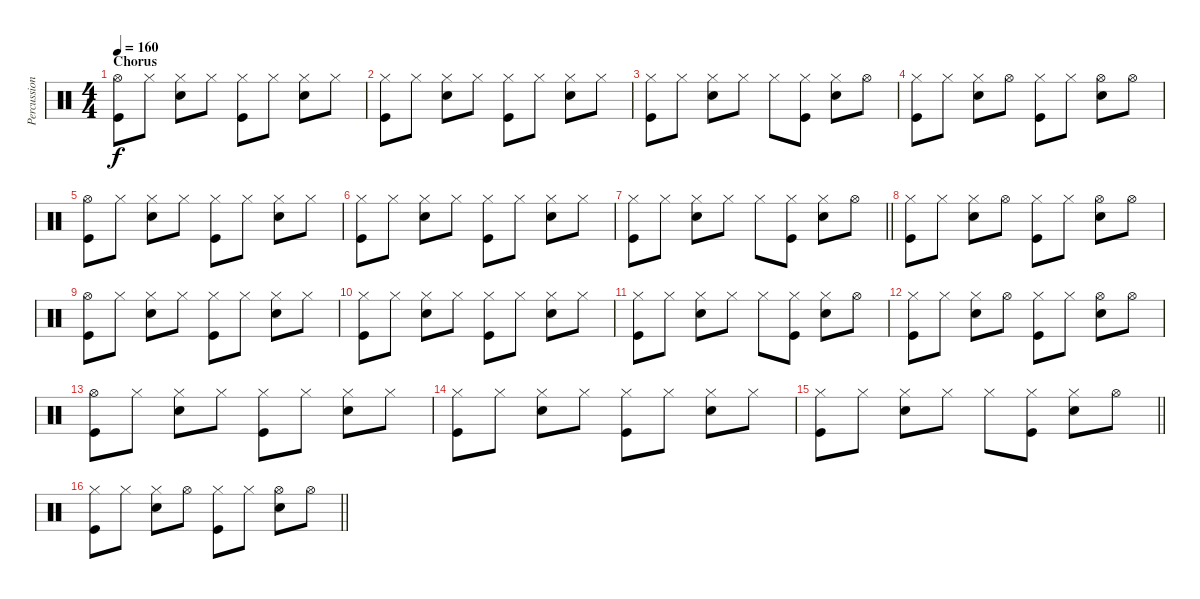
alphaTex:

\track ("Percussioni" "Percussion") {instrument percussion}
\staff {score}
\articulation defaults
\ts (4 4)
\section ("" "Chorus")
\tempo 160
\clef neutral
\ks c
("Hi-Hat (open)" "Kick (hit)").8{dy f} "Hi-Hat (closed)".8 ("Hi-Hat (closed)" "Snare (hit) 2").8 "Hi-Hat (closed)".8 ("Hi-Hat (closed)" "Kick (hit)").8 "Hi-Hat (closed)".8 ("Hi-Hat (closed)" "Snare (hit) 2").8 "Hi-Hat (closed)".8 |
("Hi-Hat (closed)" "Kick (hit)").8 "Hi-Hat (closed)".8 ("Hi-Hat (closed)" "Snare (hit) 2").8 "Hi-Hat (closed)".8 ("Hi-Hat (closed)" "Kick (hit)").8 "Hi-Hat (closed)".8 ("Hi-Hat (closed)" "Snare (hit) 2").8 "Hi-Hat (closed)".8 |
("Hi-Hat (closed)" "Kick (hit)").8 "Hi-Hat (closed)".8 ("Hi-Hat (closed)" "Snare (hit) 2").8 "Hi-Hat (closed)".8 "Hi-Hat (closed)".8 ("Hi-Hat (closed)" "Kick (hit)").8 ("Hi-Hat (closed)" "Snare (hit) 2").8 "Hi-Hat (open)".8 |
("Hi-Hat (closed)" "Kick (hit)").8 "Hi-Hat (closed)".8 ("Hi-Hat (closed)" "Snare (hit) 2").8 "Hi-Hat (open)".8 ("Hi-Hat (closed)" "Kick (hit)").8 "Hi-Hat (closed)".8 ("Hi-Hat (open)" "Snare (hit) 2").8 "Hi-Hat (open)".8 |
("Hi-Hat (open)" "Kick (hit)").8 "Hi-Hat (closed)".8 ("Hi-Hat (closed)" "Snare (hit) 2").8 "Hi-Hat (closed)".8 ("Hi-Hat (closed)" "Kick (hit)").8 "Hi-Hat (closed)".8 ("Hi-Hat (closed)" "Snare (hit) 2").8 "Hi-Hat (closed)".8 |
("Hi-Hat (closed)" "Kick (hit)").8 "Hi-Hat (closed)".8 ("Hi-Hat (closed)" "Snare (hit) 2").8 "Hi-Hat (closed)".8 ("Hi-Hat (closed)" "Kick (hit)").8 "Hi-Hat (closed)".8 ("Hi-Hat (closed)" "Snare (hit) 2").8 "Hi-Hat (closed)".8 |
\barLineRight lightlight
("Hi-Hat (closed)" "Kick (hit)").8 "Hi-Hat (closed)".8 ("Hi-Hat (closed)" "Snare (hit) 2").8 "Hi-Hat (closed)".8 "Hi-Hat (closed)".8 ("Hi-Hat (closed)" "Kick (hit)").8 ("Hi-Hat (closed)" "Snare (hit) 2").8 "Hi-Hat (open)".8 |
("Hi-Hat (closed)" "Kick (hit)").8 "Hi-Hat (closed)".8 ("Hi-Hat (closed)" "Snare (hit) 2").8 "Hi-Hat (open)".8 ("Hi-Hat (closed)" "Kick (hit)").8 "Hi-Hat (closed)".8 ("Hi-Hat (open)" "Snare (hit) 2").8 "Hi-Hat (open)".8 |
("Hi-Hat (open)" "Kick (hit)").8 "Hi-Hat (closed)".8 ("Hi-Hat (closed)" "Snare (hit) 2").8 "Hi-Hat (closed)".8 ("Hi-Hat (closed)" "Kick (hit)").8 "Hi-Hat (closed)".8 ("Hi-Hat (closed)" "Snare (hit) 2").8 "Hi-Hat (closed)".8 |
("Hi-Hat (closed)" "Kick (hit)").8 "Hi-Hat (closed)".8 ("Hi-Hat (closed)" "Snare (hit) 2").8 "Hi-Hat (closed)".8 ("Hi-Hat (closed)" "Kick (hit)").8 "Hi-Hat (closed)".8 ("Hi-Hat (closed)" "Snare (hit) 2").8 "Hi-Hat (closed)".8 |
("Hi-Hat (closed)" "Kick (hit)").8 "Hi-Hat (closed)".8 ("Hi-Hat (closed)" "Snare (hit) 2").8 "Hi-Hat (closed)".8 "Hi-Hat (closed)".8 ("Hi-Hat (closed)" "Kick (hit)").8 ("Hi-Hat (closed)" "Snare (hit) 2").8 "Hi-Hat (open)".8 |
("Hi-Hat (closed)" "Kick (hit)").8 "Hi-Hat (closed)".8 ("Hi-Hat (closed)" "Snare (hit) 2").8 "Hi-Hat (open)".8 ("Hi-Hat (closed)" "Kick (hit)").8 "Hi-Hat (closed)".8 ("Hi-Hat (open)" "Snare (hit) 2").8 "Hi-Hat (open)".8 |
("Hi-Hat (open)" "Kick (hit)").8 "Hi-Hat (closed)".8 ("Hi-Hat (closed)" "Snare (hit) 2").8 "Hi-Hat (closed)".8 ("Hi-Hat (closed)" "Kick (hit)").8 "Hi-Hat (closed)".8 ("Hi-Hat (closed)" "Snare (hit) 2").8 "Hi-Hat (closed)".8 |
("Hi-Hat (closed)" "Kick (hit)").8 "Hi-Hat (closed)".8 ("Hi-Hat (closed)" "Snare (hit) 2").8 "Hi-Hat (closed)".8 ("Hi-Hat (closed)" "Kick (hit)").8 "Hi-Hat (closed)".8 ("Hi-Hat (closed)" "Snare (hit) 2").8 "Hi-Hat (closed)".8 |
\barLineRight lightlight
("Hi-Hat (closed)" "Kick (hit)").8 "Hi-Hat (closed)".8 ("Hi-Hat (closed)" "Snare (hit) 2").8 "Hi-Hat (closed)".8 "Hi-Hat (closed)".8 ("Hi-Hat (closed)" "Kick (hit)").8 ("Hi-Hat (closed)" "Snare (hit) 2").8 "Hi-Hat (open)".8 |
\barLineRight lightlight
("Hi-Hat (closed)" "Kick (hit)").8 "Hi-Hat (closed)".8 ("Hi-Hat (closed)" "Snare (hit) 2").8 "Hi-Hat (open)".8 ("Hi-Hat (closed)" "Kick (hit)").8 "Hi-Hat (closed)".8 ("Hi-Hat (open)" "Snare (hit) 2").8 "Hi-Hat (open)".8
